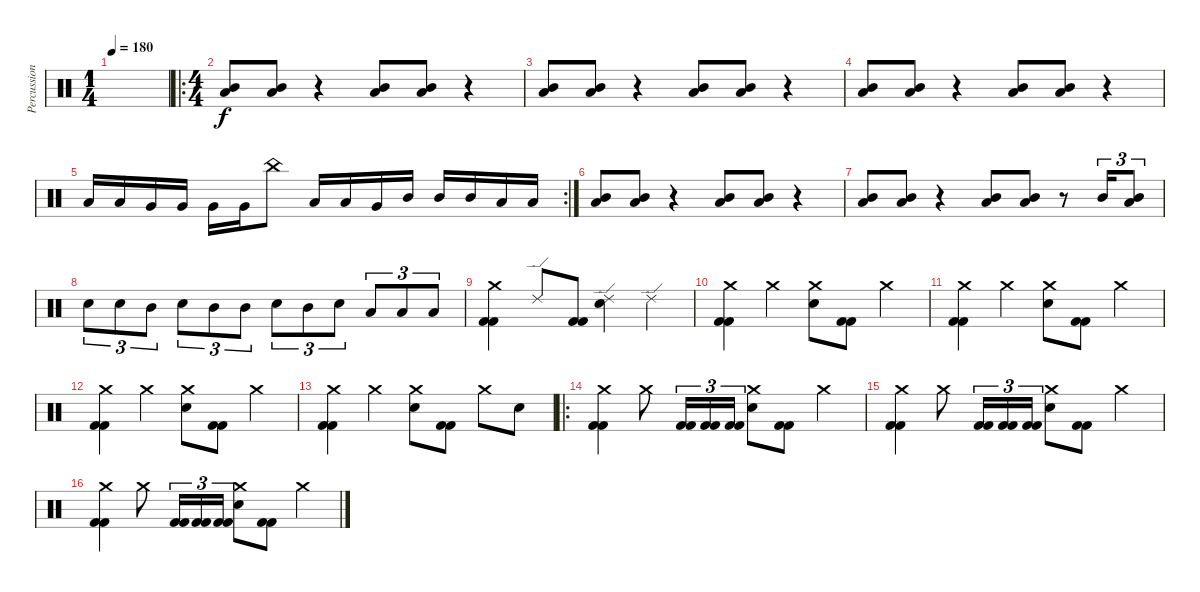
\track ("Percussion" "Percussion") {instrument percussion}
\staff {score}
\articulation defaults
\ts (1 4)
\tempo 180
\clef neutral
\ks c
|
\ro
\ts (4 4)
("Mid Tom (hit)" "Low Tom (hit)").8 ("Mid Tom (hit)" "Low Tom (hit)").8 r.4 ("Mid Tom (hit)" "Low Tom (hit)").8 ("Mid Tom (hit)" "Low Tom (hit)").8 r.4 |
("Mid Tom (hit)" "Low Tom (hit)").8 ("Mid Tom (hit)" "Low Tom (hit)").8 r.4 ("Mid Tom (hit)" "Low Tom (hit)").8 ("Mid Tom (hit)" "Low Tom (hit)").8 r.4 |
("Mid Tom (hit)" "Low Tom (hit)").8 ("Mid Tom (hit)" "Low Tom (hit)").8 r.4 ("Mid Tom (hit)" "Low Tom (hit)").8 ("Mid Tom (hit)" "Low Tom (hit)").8 r.4 |
\rc 2 "Low Tom (hit)".16 "Low Tom (hit)".16 "Very Low Tom (hit)".16 "Very Low Tom (hit)".16 "Very Low Tom (hit)".16 "Very Low Tom (hit)".16 "China (hit)".8 "Low Tom (hit)".16 "Low Tom (hit)".16 "Very Low Tom (hit)".16 "Mid Tom (hit)".16 "Mid Tom (hit)".16 "Mid Tom (hit)".16 "Low Tom (hit)".16 "Low Tom (hit)".16
|
("Mid Tom (hit)" "Low Tom (hit)").8 ("Mid Tom (hit)" "Low Tom (hit)").8 r.4 ("Mid Tom (hit)" "Low Tom (hit)").8 ("Mid Tom (hit)" "Low Tom (hit)").8 r.4 |
("Mid Tom (hit)" "Low Tom (hit)").8 ("Mid Tom (hit)" "Low Tom (hit)").8 r.4 ("Mid Tom (hit)" "Low Tom (hit)").8 ("Mid Tom (hit)" "Low Tom (hit)").8 r.8 "Mid Tom (hit)".16{tu (3 2)} ("Mid Tom (hit)" "Low Tom (hit)").8{tu (3 2)} |
"Electric Snare (hit)".8{tu (3 2)} "Electric Snare (hit)".8{tu (3 2)} "Mid Tom (hit)".8{tu (3 2)} "Electric Snare (hit)".8{tu (3 2)} "Mid Tom (hit)".8{tu (3 2)} "Mid Tom (hit)".8{tu (3 2)} "Electric Snare (hit)".8{tu (3 2)} "Mid Tom (hit)".8{tu (3 2)} "Electric Snare (hit)".8{tu (3 2)} "Low Tom (hit)".8{tu (3 2)} "Low Tom (hit)".8{tu (3 2)} "Low Tom (hit)".8{tu (3 2)} |
("Kick (hit) 2" "Kick (hit) 2" "Crash medium (hit)").4 "Ride (edge) 2".8 ("Kick (hit) 2" "Kick (hit) 2").8 ("Ride (edge) 2" "Electric Snare (hit)").4 "Ride (edge) 2".4 |
("Kick (hit) 2" "Kick (hit) 2" "Crash medium (hit)").4 "Crash medium (hit)".4 ("Crash medium (hit)" "Electric Snare (hit)").8 ("Kick (hit) 2" "Kick (hit) 2").8 "Crash medium (hit)".4 |
("Kick (hit) 2" "Kick (hit) 2" "Crash medium (hit)").4 "Crash medium (hit)".4 ("Crash medium (hit)" "Electric Snare (hit)").8 ("Kick (hit) 2" "Kick (hit) 2").8 "Crash medium (hit)".4 |
("Kick (hit) 2" "Kick (hit) 2" "Crash medium (hit)").4 "Crash medium (hit)".4 ("Crash medium (hit)" "Electric Snare (hit)").8 ("Kick (hit) 2" "Kick (hit) 2").8 "Crash medium (hit)".4 |
("Kick (hit) 2" "Kick (hit) 2" "Crash medium (hit)").4 "Crash medium (hit)".4 ("Crash medium (hit)" "Electric Snare (hit)").8 ("Kick (hit) 2" "Kick (hit) 2").8 "Crash medium (hit)".8 "Electric Snare (hit)".8 |
\ro
("Kick (hit) 2" "Kick (hit) 2" "Crash medium (hit)").4 "Crash medium (hit)".8 ("Kick (hit) 2" "Kick (hit) 2").16{tu (3 2)} ("Kick (hit) 2" "Kick (hit) 2").16{tu (3 2)} ("Kick (hit) 2" "Kick (hit) 2").16{tu (3 2)} ("Crash medium (hit)" "Electric Snare (hit)").8 ("Kick (hit) 2" "Kick (hit) 2").8 "Crash medium (hit)".4 |
("Kick (hit) 2" "Kick (hit) 2" "Crash medium (hit)").4 "Crash medium (hit)".8 ("Kick (hit) 2" "Kick (hit) 2").16{tu (3 2)} ("Kick (hit) 2" "Kick (hit) 2").16{tu (3 2)} ("Kick (hit) 2" "Kick (hit) 2").16{tu (3 2)} ("Crash medium (hit)" "Electric Snare (hit)").8 ("Kick (hit) 2" "Kick (hit) 2").8 "Crash medium (hit)".4 |
("Kick (hit) 2" "Kick (hit) 2" "Crash medium (hit)").4 "Crash medium (hit)".8 ("Kick (hit) 2" "Kick (hit) 2").16{tu (3 2)} ("Kick (hit) 2" "Kick (hit) 2").16{tu (3 2)} ("Kick (hit) 2" "Kick (hit) 2").16{tu (3 2)} ("Crash medium (hit)" "Electric Snare (hit)").8 ("Kick (hit) 2" "Kick (hit) 2").8 "Crash medium (hit)".4
